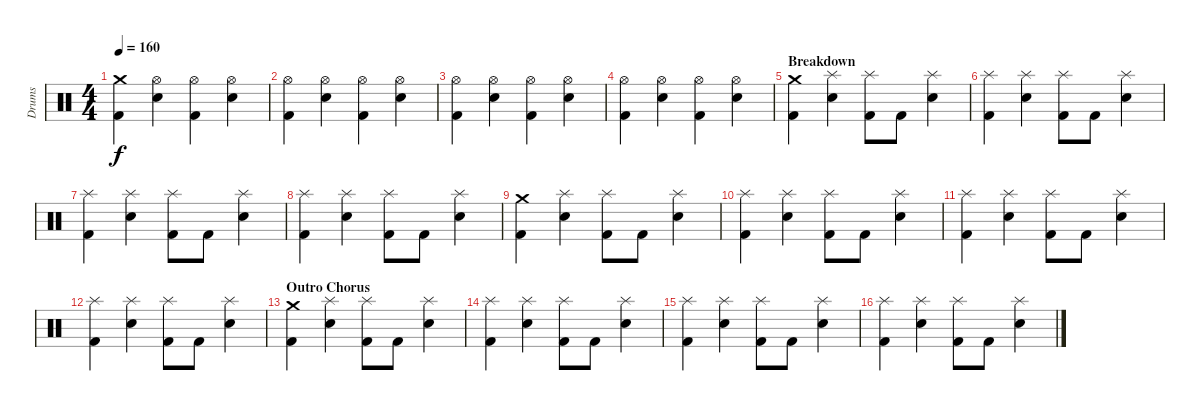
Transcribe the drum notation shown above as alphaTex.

\track ("Drums" "Drums") {instrument percussion}
\staff {score}
\articulation defaults
\ts (4 4)
\tempo 160
\clef neutral
\ks c
("Crash medium (hit)" "Kick (hit) 2").4{dy f} ("Hi-Hat (open)" "Electric Snare (hit)").4 ("Hi-Hat (open)" "Kick (hit) 2").4 ("Hi-Hat (open)" "Electric Snare (hit)").4 |
("Hi-Hat (open)" "Kick (hit) 2").4 ("Hi-Hat (open)" "Electric Snare (hit)").4 ("Hi-Hat (open)" "Kick (hit) 2").4 ("Hi-Hat (open)" "Electric Snare (hit)").4 |
("Kick (hit) 2" "Hi-Hat (open)").4 ("Electric Snare (hit)" "Hi-Hat (open)").4 ("Kick (hit) 2" "Hi-Hat (open)").4 ("Electric Snare (hit)" "Hi-Hat (open)").4 |
("Kick (hit) 2" "Hi-Hat (open)").4 ("Electric Snare (hit)" "Hi-Hat (open)").4 ("Kick (hit) 2" "Hi-Hat (open)").4 ("Electric Snare (hit)" "Hi-Hat (open)").4 |
\section ("" "Breakdown")
("Crash medium (hit)" "Kick (hit) 2").4 ("Splash (hit)" "Electric Snare (hit)").4 ("Splash (hit)" "Kick (hit) 2").8 "Kick (hit) 2".8 ("Splash (hit)" "Electric Snare (hit)").4 |
("Splash (hit)" "Kick (hit) 2").4 ("Splash (hit)" "Electric Snare (hit)").4 ("Splash (hit)" "Kick (hit) 2").8 "Kick (hit) 2".8 ("Splash (hit)" "Electric Snare (hit)").4 |
("Splash (hit)" "Kick (hit) 2").4 ("Splash (hit)" "Electric Snare (hit)").4 ("Splash (hit)" "Kick (hit) 2").8 "Kick (hit) 2".8 ("Splash (hit)" "Electric Snare (hit)").4 |
("Splash (hit)" "Kick (hit) 2").4 ("Splash (hit)" "Electric Snare (hit)").4 ("Splash (hit)" "Kick (hit) 2").8 "Kick (hit) 2".8 ("Splash (hit)" "Electric Snare (hit)").4 |
("Crash medium (hit)" "Kick (hit) 2").4 ("Splash (hit)" "Electric Snare (hit)").4 ("Splash (hit)" "Kick (hit) 2").8 "Kick (hit) 2".8 ("Splash (hit)" "Electric Snare (hit)").4 |
("Splash (hit)" "Kick (hit) 2").4 ("Splash (hit)" "Electric Snare (hit)").4 ("Splash (hit)" "Kick (hit) 2").8 "Kick (hit) 2".8 ("Splash (hit)" "Electric Snare (hit)").4 |
("Splash (hit)" "Kick (hit) 2").4 ("Splash (hit)" "Electric Snare (hit)").4 ("Splash (hit)" "Kick (hit) 2").8 "Kick (hit) 2".8 ("Splash (hit)" "Electric Snare (hit)").4 |
("Splash (hit)" "Kick (hit) 2").4 ("Splash (hit)" "Electric Snare (hit)").4 ("Splash (hit)" "Kick (hit) 2").8 "Kick (hit) 2".8 ("Splash (hit)" "Electric Snare (hit)").4 |
\section ("" "Outro Chorus")
("Kick (hit) 2" "Crash medium (hit)").4 ("Splash (hit)" "Electric Snare (hit)").4 ("Kick (hit) 2" "Splash (hit)").8 "Kick (hit) 2".8 ("Splash (hit)" "Electric Snare (hit)").4 |
("Kick (hit) 2" "Splash (hit)").4 ("Splash (hit)" "Electric Snare (hit)").4 ("Kick (hit) 2" "Splash (hit)").8 "Kick (hit) 2".8 ("Splash (hit)" "Electric Snare (hit)").4 |
("Kick (hit) 2" "Splash (hit)").4 ("Electric Snare (hit)" "Splash (hit)").4 ("Kick (hit) 2" "Splash (hit)").8 "Kick (hit) 2".8 ("Electric Snare (hit)" "Splash (hit)").4 |
("Kick (hit) 2" "Splash (hit)").4 ("Electric Snare (hit)" "Splash (hit)").4 ("Kick (hit) 2" "Splash (hit)").8 "Kick (hit) 2".8 ("Electric Snare (hit)" "Splash (hit)").4
